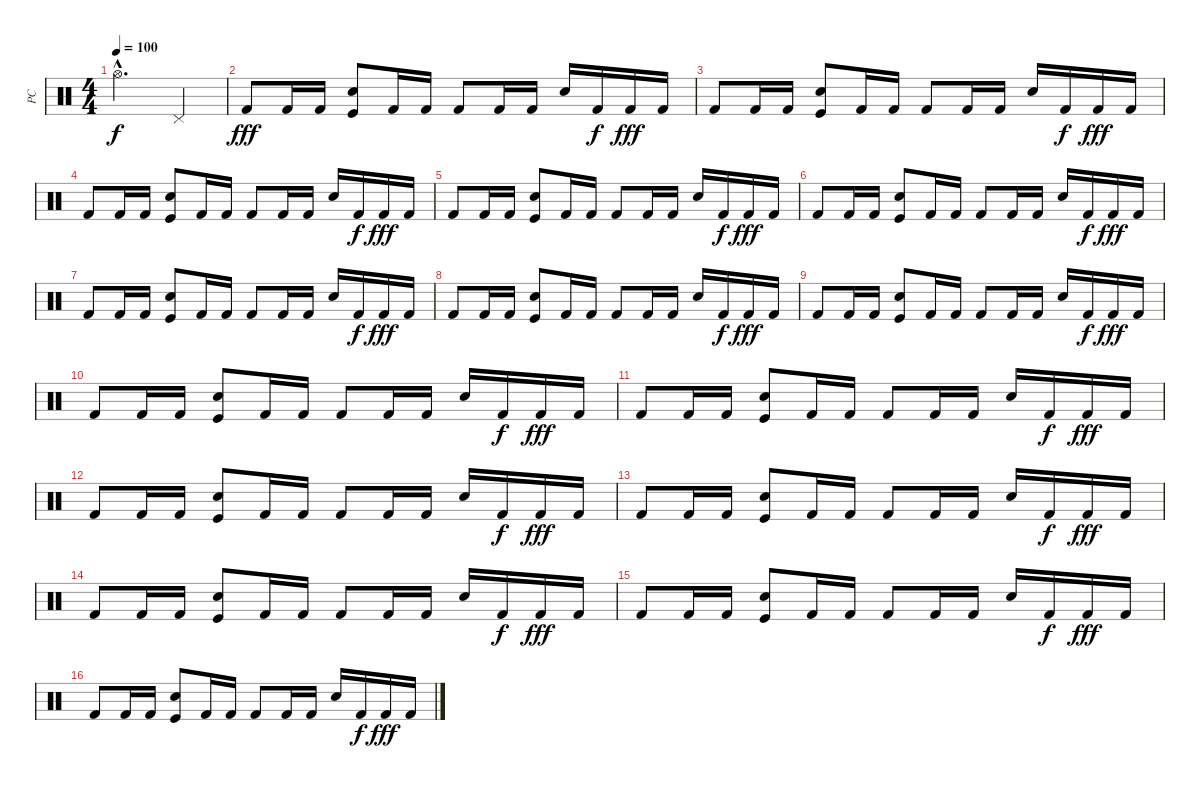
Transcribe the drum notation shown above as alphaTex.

\track ("PC" "PC") {instrument percussion}
\staff {score}
\articulation defaults
\ts (4 4)
\tempo 100
\clef neutral
\ks c "Hi-Hat (open)"{hac}.2{d dy f} "Pedal Hi-Hat (hit)".4
|
"Kick (hit) 2".8{dy fff} "Kick (hit) 2".16 "Kick (hit) 2".16 ("Kick (hit)" "Electric Snare (hit)").8 "Kick (hit) 2".16 "Kick (hit) 2".16 "Kick (hit) 2".8 "Kick (hit) 2".16 "Kick (hit) 2".16 "Electric Snare (hit)".16 "Kick (hit) 2".16{dy f} "Kick (hit) 2".16{dy fff} "Kick (hit) 2".16 |
"Kick (hit) 2".8 "Kick (hit) 2".16 "Kick (hit) 2".16 ("Kick (hit)" "Electric Snare (hit)").8 "Kick (hit) 2".16 "Kick (hit) 2".16 "Kick (hit) 2".8 "Kick (hit) 2".16 "Kick (hit) 2".16 "Electric Snare (hit)".16 "Kick (hit) 2".16{dy f} "Kick (hit) 2".16{dy fff} "Kick (hit) 2".16 |
"Kick (hit) 2".8 "Kick (hit) 2".16 "Kick (hit) 2".16 ("Kick (hit)" "Electric Snare (hit)").8 "Kick (hit) 2".16 "Kick (hit) 2".16 "Kick (hit) 2".8 "Kick (hit) 2".16 "Kick (hit) 2".16 "Electric Snare (hit)".16 "Kick (hit) 2".16{dy f} "Kick (hit) 2".16{dy fff} "Kick (hit) 2".16 |
"Kick (hit) 2".8 "Kick (hit) 2".16 "Kick (hit) 2".16 ("Kick (hit)" "Electric Snare (hit)").8 "Kick (hit) 2".16 "Kick (hit) 2".16 "Kick (hit) 2".8 "Kick (hit) 2".16 "Kick (hit) 2".16 "Electric Snare (hit)".16 "Kick (hit) 2".16{dy f} "Kick (hit) 2".16{dy fff} "Kick (hit) 2".16 |
"Kick (hit) 2".8 "Kick (hit) 2".16 "Kick (hit) 2".16 ("Kick (hit)" "Electric Snare (hit)").8 "Kick (hit) 2".16 "Kick (hit) 2".16 "Kick (hit) 2".8 "Kick (hit) 2".16 "Kick (hit) 2".16 "Electric Snare (hit)".16 "Kick (hit) 2".16{dy f} "Kick (hit) 2".16{dy fff} "Kick (hit) 2".16 |
"Kick (hit) 2".8 "Kick (hit) 2".16 "Kick (hit) 2".16 ("Kick (hit)" "Electric Snare (hit)").8 "Kick (hit) 2".16 "Kick (hit) 2".16 "Kick (hit) 2".8 "Kick (hit) 2".16 "Kick (hit) 2".16 "Electric Snare (hit)".16 "Kick (hit) 2".16{dy f} "Kick (hit) 2".16{dy fff} "Kick (hit) 2".16 |
"Kick (hit) 2".8 "Kick (hit) 2".16 "Kick (hit) 2".16 ("Kick (hit)" "Electric Snare (hit)").8 "Kick (hit) 2".16 "Kick (hit) 2".16 "Kick (hit) 2".8 "Kick (hit) 2".16 "Kick (hit) 2".16 "Electric Snare (hit)".16 "Kick (hit) 2".16{dy f} "Kick (hit) 2".16{dy fff} "Kick (hit) 2".16 |
"Kick (hit) 2".8 "Kick (hit) 2".16 "Kick (hit) 2".16 ("Kick (hit)" "Electric Snare (hit)").8 "Kick (hit) 2".16 "Kick (hit) 2".16 "Kick (hit) 2".8 "Kick (hit) 2".16 "Kick (hit) 2".16 "Electric Snare (hit)".16 "Kick (hit) 2".16{dy f} "Kick (hit) 2".16{dy fff} "Kick (hit) 2".16 |
"Kick (hit) 2".8 "Kick (hit) 2".16 "Kick (hit) 2".16 ("Kick (hit)" "Electric Snare (hit)").8 "Kick (hit) 2".16 "Kick (hit) 2".16 "Kick (hit) 2".8 "Kick (hit) 2".16 "Kick (hit) 2".16 "Electric Snare (hit)".16 "Kick (hit) 2".16{dy f} "Kick (hit) 2".16{dy fff} "Kick (hit) 2".16 |
"Kick (hit) 2".8 "Kick (hit) 2".16 "Kick (hit) 2".16 ("Kick (hit)" "Electric Snare (hit)").8 "Kick (hit) 2".16 "Kick (hit) 2".16 "Kick (hit) 2".8 "Kick (hit) 2".16 "Kick (hit) 2".16 "Electric Snare (hit)".16 "Kick (hit) 2".16{dy f} "Kick (hit) 2".16{dy fff} "Kick (hit) 2".16 |
"Kick (hit) 2".8 "Kick (hit) 2".16 "Kick (hit) 2".16 ("Kick (hit)" "Electric Snare (hit)").8 "Kick (hit) 2".16 "Kick (hit) 2".16 "Kick (hit) 2".8 "Kick (hit) 2".16 "Kick (hit) 2".16 "Electric Snare (hit)".16 "Kick (hit) 2".16{dy f} "Kick (hit) 2".16{dy fff} "Kick (hit) 2".16 |
"Kick (hit) 2".8 "Kick (hit) 2".16 "Kick (hit) 2".16 ("Kick (hit)" "Electric Snare (hit)").8 "Kick (hit) 2".16 "Kick (hit) 2".16 "Kick (hit) 2".8 "Kick (hit) 2".16 "Kick (hit) 2".16 "Electric Snare (hit)".16 "Kick (hit) 2".16{dy f} "Kick (hit) 2".16{dy fff} "Kick (hit) 2".16 |
"Kick (hit) 2".8 "Kick (hit) 2".16 "Kick (hit) 2".16 ("Kick (hit)" "Electric Snare (hit)").8 "Kick (hit) 2".16 "Kick (hit) 2".16 "Kick (hit) 2".8 "Kick (hit) 2".16 "Kick (hit) 2".16 "Electric Snare (hit)".16 "Kick (hit) 2".16{dy f} "Kick (hit) 2".16{dy fff} "Kick (hit) 2".16 |
"Kick (hit) 2".8 "Kick (hit) 2".16 "Kick (hit) 2".16 ("Kick (hit)" "Electric Snare (hit)").8 "Kick (hit) 2".16 "Kick (hit) 2".16 "Kick (hit) 2".8 "Kick (hit) 2".16 "Kick (hit) 2".16 "Electric Snare (hit)".16 "Kick (hit) 2".16{dy f} "Kick (hit) 2".16{dy fff} "Kick (hit) 2".16 |
"Kick (hit) 2".8 "Kick (hit) 2".16 "Kick (hit) 2".16 ("Kick (hit)" "Electric Snare (hit)").8 "Kick (hit) 2".16 "Kick (hit) 2".16 "Kick (hit) 2".8 "Kick (hit) 2".16 "Kick (hit) 2".16 "Electric Snare (hit)".16 "Kick (hit) 2".16{dy f} "Kick (hit) 2".16{dy fff} "Kick (hit) 2".16
